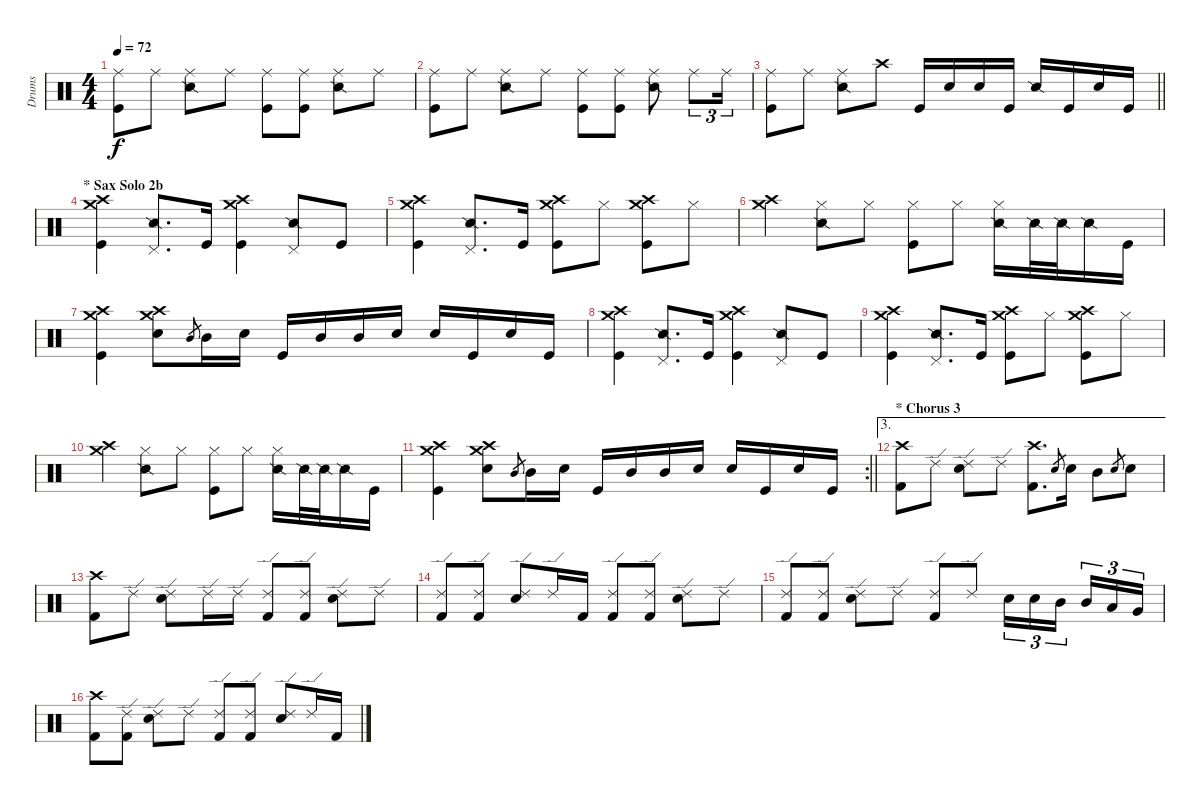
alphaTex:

\track ("Drums" "Drums") {instrument percussion}
\staff {score}
\articulation defaults
\ts (4 4)
\tempo 72
\clef neutral
\ks c
("Ride (middle)" "Kick (hit)").8{dy f} "Ride (middle)".8 ("Ride (middle)" "Snare (side stick) 2").8 "Ride (middle)".8 ("Ride (middle)" "Kick (hit)").8 ("Ride (middle)" "Kick (hit)").8 ("Ride (middle)" "Snare (side stick) 2").8 "Ride (middle)".8 |
("Ride (middle)" "Kick (hit)").8 "Ride (middle)".8 ("Ride (middle)" "Snare (side stick) 2").8 "Ride (middle)".8 ("Ride (middle)" "Kick (hit)").8 ("Ride (middle)" "Kick (hit)").8 ("Ride (middle)" "Snare (side stick) 2").8 "Ride (middle)".8{tu (3 2)} "Ride (middle)".16{tu (3 2)} |
\barLineRight lightlight
("Ride (middle)" "Kick (hit)").8 "Ride (middle)".8 ("Ride (middle)" "Snare (side stick) 2").8 "Crash high (hit)".8 "Kick (hit)".16 "Electric Snare (hit)".16 "Electric Snare (hit)".16 "Kick (hit)".16 "Snare (side stick) 2".16 "Kick (hit)".16 "Snare (hit) 2".16 "Kick (hit)".16 |
\section ("" "* Sax Solo 2b")
("Crash medium (hit)" "Crash high (hit)" "Kick (hit)").4 ("Pedal Hi-Hat (hit)" "Snare (side stick) 2").8{d} "Kick (hit)".16 ("Crash medium (hit)" "Crash high (hit)" "Kick (hit)").4 ("Pedal Hi-Hat (hit)" "Snare (side stick) 2").8 "Kick (hit)".8 |
("Crash medium (hit)" "Crash high (hit)" "Kick (hit)").4 ("Pedal Hi-Hat (hit)" "Snare (side stick) 2").8{d} "Kick (hit)".16 ("Crash medium (hit)" "Crash high (hit)" "Kick (hit)").8 "Hi-Hat (closed)".8 ("Crash medium (hit)" "Crash high (hit)" "Kick (hit)").8 "Hi-Hat (closed)".8 |
("Crash medium (hit)" "Crash high (hit)").4 ("Hi-Hat (closed)" "Snare (side stick) 2").8 "Hi-Hat (closed)".8 ("Hi-Hat (closed)" "Kick (hit)").8 "Hi-Hat (closed)".8 ("Hi-Hat (closed)" "Snare (side stick) 2").16 "Snare (side stick) 2".32 "Snare (side stick) 2".32 "Snare (side stick) 2".16 "Kick (hit)".16 |
("Crash medium (hit)" "Crash high (hit)" "Kick (hit)").4 ("Crash high (hit)" "Electric Snare (hit)" "Crash medium (hit)").8 "Mid Tom (hit)".8{gr} "Mid Tom (hit)".16 "Electric Snare (hit)".16 "Kick (hit)".16 "Mid Tom (hit)".16 "Mid Tom (hit)".16 "Electric Snare (hit)".16 "Electric Snare (hit)".16 "Kick (hit)".16 "Electric Snare (hit)".16 "Kick (hit)".16 |
("Crash medium (hit)" "Crash high (hit)" "Kick (hit)").4 ("Pedal Hi-Hat (hit)" "Snare (side stick) 2").8{d} "Kick (hit)".16 ("Crash medium (hit)" "Crash high (hit)" "Kick (hit)").4 ("Pedal Hi-Hat (hit)" "Snare (side stick) 2").8 "Kick (hit)".8 |
("Crash medium (hit)" "Crash high (hit)" "Kick (hit)").4 ("Pedal Hi-Hat (hit)" "Snare (side stick) 2").8{d} "Kick (hit)".16 ("Crash medium (hit)" "Crash high (hit)" "Kick (hit)").8 "Hi-Hat (closed)".8 ("Crash medium (hit)" "Crash high (hit)" "Kick (hit)").8 "Hi-Hat (closed)".8 |
("Crash medium (hit)" "Crash high (hit)").4 ("Hi-Hat (closed)" "Snare (side stick) 2").8 "Hi-Hat (closed)".8 ("Hi-Hat (closed)" "Kick (hit)").8 "Hi-Hat (closed)".8 ("Hi-Hat (closed)" "Snare (side stick) 2").16 "Snare (side stick) 2".32 "Snare (side stick) 2".32 "Snare (side stick) 2".16 "Kick (hit)".16 |
\rc 2
\barLineRight lightlight
("Crash medium (hit)" "Crash high (hit)" "Kick (hit)").4 ("Crash high (hit)" "Electric Snare (hit)" "Crash medium (hit)").8 "Mid Tom (hit)".8{gr} "Mid Tom (hit)".16 "Electric Snare (hit)".16 "Kick (hit)".16 "Mid Tom (hit)".16 "Mid Tom (hit)".16 "Electric Snare (hit)".16 "Electric Snare (hit)".16 "Kick (hit)".16 "Electric Snare (hit)".16 "Kick (hit)".16 |
\ae 3
\section ("" "* Chorus 3")
("Crash high (hit)" "Kick (hit) 2").8 "Ride (edge) 2".8 ("Ride (edge) 2" "Electric Snare (hit)").8 "Ride (edge) 2".8 ("Crash high (hit)" "Kick (hit) 2").8{d} "Electric Snare (hit)".8{gr} "Electric Snare (hit)".16 "Mid Tom (hit)".8 "Electric Snare (hit)".8{gr} "Electric Snare (hit)".8 |
("Crash high (hit)" "Kick (hit) 2").8 "Ride (edge) 2".8 ("Ride (edge) 2" "Electric Snare (hit)").8 "Ride (edge) 2".16 "Ride (edge) 2".16 ("Ride (edge) 2" "Kick (hit) 2").8 ("Ride (edge) 2" "Kick (hit) 2").8 ("Ride (edge) 2" "Electric Snare (hit)").8 "Ride (edge) 2".8 |
("Ride (edge) 2" "Kick (hit) 2").8 ("Ride (edge) 2" "Kick (hit) 2").8 ("Ride (edge) 2" "Electric Snare (hit)").8 "Ride (edge) 2".16 "Kick (hit) 2".16 ("Ride (edge) 2" "Kick (hit) 2").8 ("Ride (edge) 2" "Kick (hit) 2").8 ("Ride (edge) 2" "Electric Snare (hit)").8 "Ride (edge) 2".8 |
("Ride (edge) 2" "Kick (hit) 2").8 ("Ride (edge) 2" "Kick (hit) 2").8 ("Ride (edge) 2" "Electric Snare (hit)").8 "Ride (edge) 2".8 ("Ride (edge) 2" "Kick (hit) 2").8 "Ride (edge) 2".8 "Electric Snare (hit)".16{tu (3 2)} "Electric Snare (hit)".16{tu (3 2)} "Mid Tom (hit)".16{tu (3 2) beam splitsecondary} "Mid Tom (hit)".16{tu (3 2)} "Low Tom (hit)".16{tu (3 2)} "Very Low Tom (hit)".16{tu (3 2)} |
("Crash high (hit)" "Kick (hit) 2").8 ("Ride (edge) 2" "Kick (hit) 2").8 ("Ride (edge) 2" "Electric Snare (hit)").8 "Ride (edge) 2".8 ("Ride (edge) 2" "Kick (hit) 2").8 ("Ride (edge) 2" "Kick (hit) 2").8 ("Ride (edge) 2" "Electric Snare (hit)").8 "Ride (edge) 2".16 "Kick (hit) 2".16
